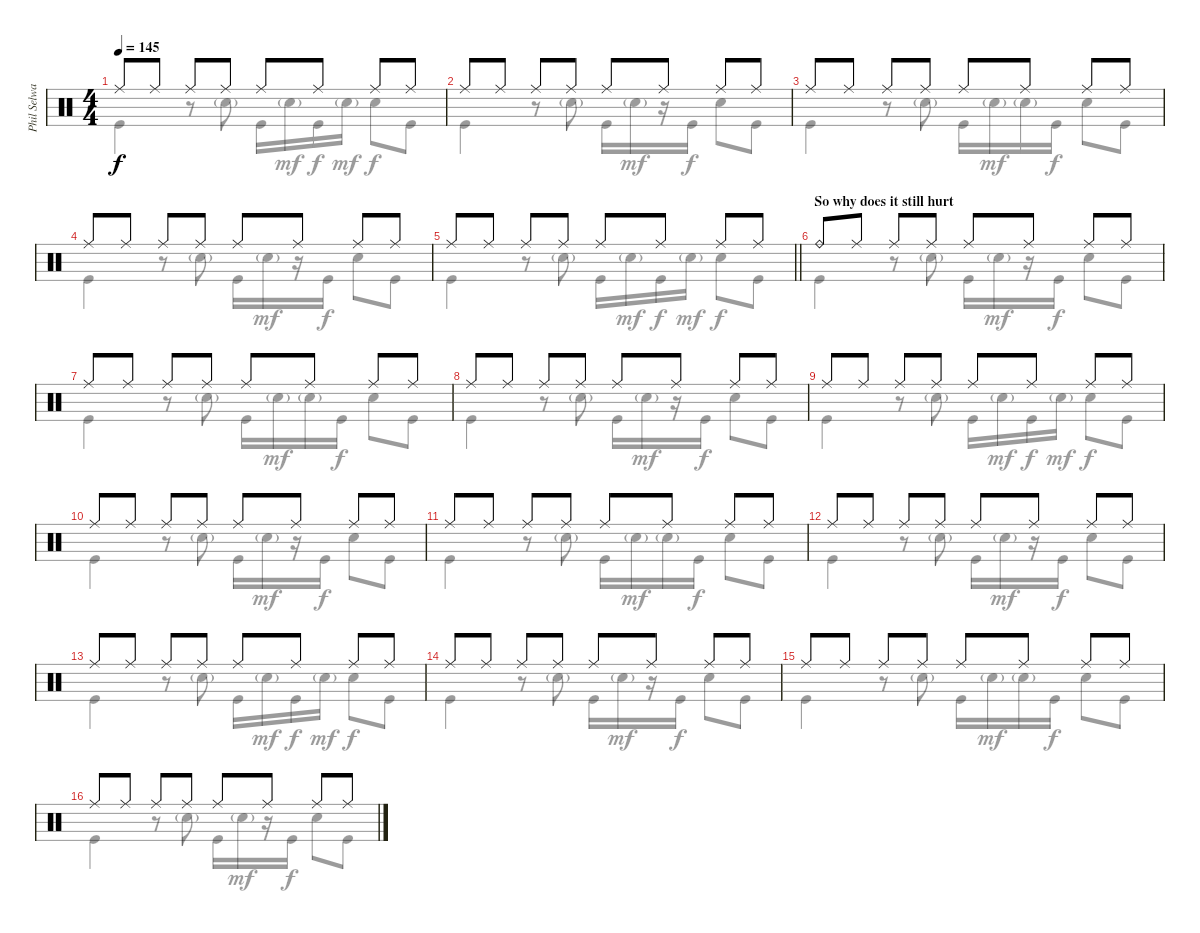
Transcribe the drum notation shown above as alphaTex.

\track ("Phil Selway" "Phil Selwa") {instrument percussion}
\staff {score}
\articulation defaults
\voice
\ts (4 4)
\tempo 145
\clef neutral
\ks c "Ride (middle)".8{dy f} "Ride (middle)".8 "Ride (middle)".8 "Ride (middle)".8 "Ride (middle)".8 "Ride (middle)".8 "Ride (middle)".8 "Ride (middle)".8
|
"Ride (middle)".8 "Ride (middle)".8 "Ride (middle)".8 "Ride (middle)".8 "Ride (middle)".8 "Ride (middle)".8 "Ride (middle)".8 "Ride (middle)".8 |
"Ride (middle)".8 "Ride (middle)".8 "Ride (middle)".8 "Ride (middle)".8 "Ride (middle)".8 "Ride (middle)".8 "Ride (middle)".8 "Ride (middle)".8 |
"Ride (middle)".8 "Ride (middle)".8 "Ride (middle)".8 "Ride (middle)".8 "Ride (middle)".8 "Ride (middle)".8 "Ride (middle)".8 "Ride (middle)".8 |
\barLineRight lightlight "Ride (middle)".8 "Ride (middle)".8 "Ride (middle)".8 "Ride (middle)".8 "Ride (middle)".8 "Ride (middle)".8 "Ride (middle)".8 "Ride (middle)".8
|
\section ("" "So why does it still hurt")
"Ride (bell)".8 "Ride (middle)".8 "Ride (middle)".8 "Ride (middle)".8 "Ride (middle)".8 "Ride (middle)".8 "Ride (middle)".8 "Ride (middle)".8 |
"Ride (middle)".8 "Ride (middle)".8 "Ride (middle)".8 "Ride (middle)".8 "Ride (middle)".8 "Ride (middle)".8 "Ride (middle)".8 "Ride (middle)".8 |
"Ride (middle)".8 "Ride (middle)".8 "Ride (middle)".8 "Ride (middle)".8 "Ride (middle)".8 "Ride (middle)".8 "Ride (middle)".8 "Ride (middle)".8 |
"Ride (middle)".8 "Ride (middle)".8 "Ride (middle)".8 "Ride (middle)".8 "Ride (middle)".8 "Ride (middle)".8 "Ride (middle)".8 "Ride (middle)".8 |
"Ride (middle)".8 "Ride (middle)".8 "Ride (middle)".8 "Ride (middle)".8 "Ride (middle)".8 "Ride (middle)".8 "Ride (middle)".8 "Ride (middle)".8 |
"Ride (middle)".8 "Ride (middle)".8 "Ride (middle)".8 "Ride (middle)".8 "Ride (middle)".8 "Ride (middle)".8 "Ride (middle)".8 "Ride (middle)".8 |
"Ride (middle)".8 "Ride (middle)".8 "Ride (middle)".8 "Ride (middle)".8 "Ride (middle)".8 "Ride (middle)".8 "Ride (middle)".8 "Ride (middle)".8 |
"Ride (middle)".8 "Ride (middle)".8 "Ride (middle)".8 "Ride (middle)".8 "Ride (middle)".8 "Ride (middle)".8 "Ride (middle)".8 "Ride (middle)".8 |
"Ride (middle)".8 "Ride (middle)".8 "Ride (middle)".8 "Ride (middle)".8 "Ride (middle)".8 "Ride (middle)".8 "Ride (middle)".8 "Ride (middle)".8 |
"Ride (middle)".8 "Ride (middle)".8 "Ride (middle)".8 "Ride (middle)".8 "Ride (middle)".8 "Ride (middle)".8 "Ride (middle)".8 "Ride (middle)".8 |
"Ride (middle)".8 "Ride (middle)".8 "Ride (middle)".8 "Ride (middle)".8 "Ride (middle)".8 "Ride (middle)".8 "Ride (middle)".8 "Ride (middle)".8
\voice
\clef neutral
\ottava regular
\simile none
\ks c "Kick (hit)".4{dy f}
r.8 "Snare (hit) 2"{g}.8 "Kick (hit)".16 "Snare (hit) 2"{g}.16{dy mf} "Kick (hit)".16{dy f} "Snare (hit) 2"{g}.16{dy mf} "Snare (hit) 2".8{dy f} "Kick (hit)".8 |
"Kick (hit)".4 r.8 "Snare (hit) 2"{g}.8 "Kick (hit)".16 "Snare (hit) 2"{g}.16{dy mf} r.16 "Kick (hit)".16{dy f} "Snare (hit) 2".8 "Kick (hit)".8 |
"Kick (hit)".4 r.8 "Snare (hit) 2"{g}.8 "Kick (hit)".16 "Snare (hit) 2"{g}.16{dy mf} "Snare (hit) 2"{g}.16 "Kick (hit)".16{dy f} "Snare (hit) 2".8 "Kick (hit)".8 |
"Kick (hit)".4 r.8 "Snare (hit) 2"{g}.8 "Kick (hit)".16 "Snare (hit) 2"{g}.16{dy mf} r.16 "Kick (hit)".16{dy f} "Snare (hit) 2".8 "Kick (hit)".8 |
\barLineRight lightlight "Kick (hit)".4
r.8 "Snare (hit) 2"{g}.8 "Kick (hit)".16 "Snare (hit) 2"{g}.16{dy mf} "Kick (hit)".16{dy f} "Snare (hit) 2"{g}.16{dy mf} "Snare (hit) 2".8{dy f} "Kick (hit)".8 |
"Kick (hit)".4 r.8 "Snare (hit) 2"{g}.8 "Kick (hit)".16 "Snare (hit) 2"{g}.16{dy mf} r.16 "Kick (hit)".16{dy f} "Snare (hit) 2".8 "Kick (hit)".8 |
"Kick (hit)".4 r.8 "Snare (hit) 2"{g}.8 "Kick (hit)".16 "Snare (hit) 2"{g}.16{dy mf} "Snare (hit) 2"{g}.16 "Kick (hit)".16{dy f} "Snare (hit) 2".8 "Kick (hit)".8 |
"Kick (hit)".4 r.8 "Snare (hit) 2"{g}.8 "Kick (hit)".16 "Snare (hit) 2"{g}.16{dy mf} r.16 "Kick (hit)".16{dy f} "Snare (hit) 2".8 "Kick (hit)".8 |
"Kick (hit)".4 r.8 "Snare (hit) 2"{g}.8 "Kick (hit)".16 "Snare (hit) 2"{g}.16{dy mf} "Kick (hit)".16{dy f} "Snare (hit) 2"{g}.16{dy mf} "Snare (hit) 2".8{dy f} "Kick (hit)".8 |
"Kick (hit)".4 r.8 "Snare (hit) 2"{g}.8 "Kick (hit)".16 "Snare (hit) 2"{g}.16{dy mf} r.16 "Kick (hit)".16{dy f} "Snare (hit) 2".8 "Kick (hit)".8 |
"Kick (hit)".4 r.8 "Snare (hit) 2"{g}.8 "Kick (hit)".16 "Snare (hit) 2"{g}.16{dy mf} "Snare (hit) 2"{g}.16 "Kick (hit)".16{dy f} "Snare (hit) 2".8 "Kick (hit)".8 |
"Kick (hit)".4 r.8 "Snare (hit) 2"{g}.8 "Kick (hit)".16 "Snare (hit) 2"{g}.16{dy mf} r.16 "Kick (hit)".16{dy f} "Snare (hit) 2".8 "Kick (hit)".8 |
"Kick (hit)".4 r.8 "Snare (hit) 2"{g}.8 "Kick (hit)".16 "Snare (hit) 2"{g}.16{dy mf} "Kick (hit)".16{dy f} "Snare (hit) 2"{g}.16{dy mf} "Snare (hit) 2".8{dy f} "Kick (hit)".8 |
"Kick (hit)".4 r.8 "Snare (hit) 2"{g}.8 "Kick (hit)".16 "Snare (hit) 2"{g}.16{dy mf} r.16 "Kick (hit)".16{dy f} "Snare (hit) 2".8 "Kick (hit)".8 |
"Kick (hit)".4 r.8 "Snare (hit) 2"{g}.8 "Kick (hit)".16 "Snare (hit) 2"{g}.16{dy mf} "Snare (hit) 2"{g}.16 "Kick (hit)".16{dy f} "Snare (hit) 2".8 "Kick (hit)".8 |
"Kick (hit)".4 r.8 "Snare (hit) 2"{g}.8 "Kick (hit)".16 "Snare (hit) 2"{g}.16{dy mf} r.16 "Kick (hit)".16{dy f} "Snare (hit) 2".8 "Kick (hit)".8
